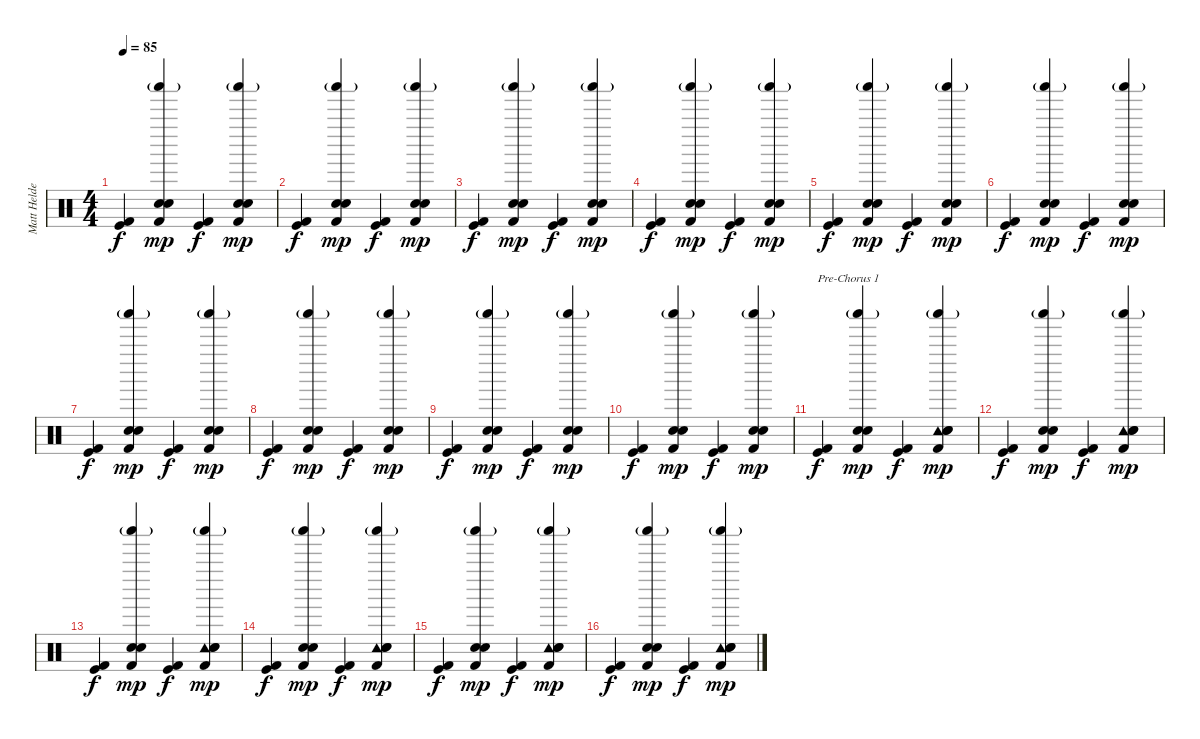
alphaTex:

\track ("Matt Helders" "Matt Helde") {instrument percussion}
\staff {score}
\articulation defaults
\ts (4 4)
\tempo 85
\clef neutral
\ks c
("Kick (hit)" "Kick (hit) 2").4{dy f} ("Hand Clap (hit)" "Shaker (hit)"{g} "Electric Snare (hit)" "Kick (hit) 2").4{dy mp} ("Kick (hit)" "Kick (hit) 2").4{dy f} ("Hand Clap (hit)" "Shaker (hit)"{g} "Electric Snare (hit)" "Kick (hit) 2").4{dy mp} |
("Kick (hit)" "Kick (hit) 2").4{dy f} ("Hand Clap (hit)" "Shaker (hit)"{g} "Electric Snare (hit)" "Kick (hit) 2").4{dy mp} ("Kick (hit)" "Kick (hit) 2").4{dy f} ("Hand Clap (hit)" "Shaker (hit)"{g} "Electric Snare (hit)" "Kick (hit) 2").4{dy mp} |
("Kick (hit)" "Kick (hit) 2").4{dy f} ("Hand Clap (hit)" "Shaker (hit)"{g} "Electric Snare (hit)" "Kick (hit) 2").4{dy mp} ("Kick (hit)" "Kick (hit) 2").4{dy f} ("Hand Clap (hit)" "Shaker (hit)"{g} "Electric Snare (hit)" "Kick (hit) 2").4{dy mp} |
("Kick (hit)" "Kick (hit) 2").4{dy f} ("Hand Clap (hit)" "Shaker (hit)"{g} "Electric Snare (hit)" "Kick (hit) 2").4{dy mp} ("Kick (hit)" "Kick (hit) 2").4{dy f} ("Hand Clap (hit)" "Shaker (hit)"{g} "Electric Snare (hit)" "Kick (hit) 2").4{dy mp} |
("Kick (hit)" "Kick (hit) 2").4{dy f} ("Hand Clap (hit)" "Shaker (hit)"{g} "Electric Snare (hit)" "Kick (hit) 2").4{dy mp} ("Kick (hit)" "Kick (hit) 2").4{dy f} ("Hand Clap (hit)" "Shaker (hit)"{g} "Electric Snare (hit)" "Kick (hit) 2").4{dy mp} |
("Kick (hit)" "Kick (hit) 2").4{dy f} ("Hand Clap (hit)" "Shaker (hit)"{g} "Electric Snare (hit)" "Kick (hit) 2").4{dy mp} ("Kick (hit)" "Kick (hit) 2").4{dy f} ("Hand Clap (hit)" "Shaker (hit)"{g} "Electric Snare (hit)" "Kick (hit) 2").4{dy mp} |
("Kick (hit)" "Kick (hit) 2").4{dy f} ("Hand Clap (hit)" "Shaker (hit)"{g} "Electric Snare (hit)" "Kick (hit) 2").4{dy mp} ("Kick (hit)" "Kick (hit) 2").4{dy f} ("Hand Clap (hit)" "Shaker (hit)"{g} "Electric Snare (hit)" "Kick (hit) 2").4{dy mp} |
("Kick (hit)" "Kick (hit) 2").4{dy f} ("Hand Clap (hit)" "Shaker (hit)"{g} "Electric Snare (hit)" "Kick (hit) 2").4{dy mp} ("Kick (hit)" "Kick (hit) 2").4{dy f} ("Hand Clap (hit)" "Shaker (hit)"{g} "Electric Snare (hit)" "Kick (hit) 2").4{dy mp} |
("Kick (hit)" "Kick (hit) 2").4{dy f} ("Hand Clap (hit)" "Shaker (hit)"{g} "Electric Snare (hit)" "Kick (hit) 2").4{dy mp} ("Kick (hit)" "Kick (hit) 2").4{dy f} ("Hand Clap (hit)" "Shaker (hit)"{g} "Electric Snare (hit)" "Kick (hit) 2").4{dy mp} |
("Kick (hit)" "Kick (hit) 2").4{dy f} ("Hand Clap (hit)" "Shaker (hit)"{g} "Electric Snare (hit)" "Kick (hit) 2").4{dy mp} ("Kick (hit)" "Kick (hit) 2").4{dy f} ("Hand Clap (hit)" "Shaker (hit)"{g} "Electric Snare (hit)" "Kick (hit) 2").4{dy mp} |
("Kick (hit)" "Kick (hit) 2").4{txt "Pre-Chorus 1" dy f} ("Hand Clap (hit)" "Shaker (hit)"{g} "Electric Snare (hit)" "Kick (hit) 2").4{dy mp} ("Kick (hit)" "Kick (hit) 2").4{dy f} ("Tambourine (hit)" "Hand Clap (hit)" "Shaker (hit)"{g} "Electric Snare (hit)" "Kick (hit) 2").4{dy mp} |
("Kick (hit)" "Kick (hit) 2").4{dy f} ("Hand Clap (hit)" "Shaker (hit)"{g} "Electric Snare (hit)" "Kick (hit) 2").4{dy mp} ("Kick (hit)" "Kick (hit) 2").4{dy f} ("Tambourine (hit)" "Hand Clap (hit)" "Shaker (hit)"{g} "Electric Snare (hit)" "Kick (hit) 2").4{dy mp} |
("Kick (hit)" "Kick (hit) 2").4{dy f} ("Hand Clap (hit)" "Shaker (hit)"{g} "Electric Snare (hit)" "Kick (hit) 2").4{dy mp} ("Kick (hit)" "Kick (hit) 2").4{dy f} ("Tambourine (hit)" "Hand Clap (hit)" "Shaker (hit)"{g} "Electric Snare (hit)" "Kick (hit) 2").4{dy mp} |
("Kick (hit)" "Kick (hit) 2").4{dy f} ("Hand Clap (hit)" "Shaker (hit)"{g} "Electric Snare (hit)" "Kick (hit) 2").4{dy mp} ("Kick (hit)" "Kick (hit) 2").4{dy f} ("Tambourine (hit)" "Hand Clap (hit)" "Shaker (hit)"{g} "Electric Snare (hit)" "Kick (hit) 2").4{dy mp} |
("Kick (hit)" "Kick (hit) 2").4{dy f} ("Hand Clap (hit)" "Shaker (hit)"{g} "Electric Snare (hit)" "Kick (hit) 2").4{dy mp} ("Kick (hit)" "Kick (hit) 2").4{dy f} ("Tambourine (hit)" "Hand Clap (hit)" "Shaker (hit)"{g} "Electric Snare (hit)" "Kick (hit) 2").4{dy mp} |
("Kick (hit)" "Kick (hit) 2").4{dy f} ("Hand Clap (hit)" "Shaker (hit)"{g} "Electric Snare (hit)" "Kick (hit) 2").4{dy mp} ("Kick (hit)" "Kick (hit) 2").4{dy f} ("Tambourine (hit)" "Hand Clap (hit)" "Shaker (hit)"{g} "Electric Snare (hit)" "Kick (hit) 2").4{dy mp}
